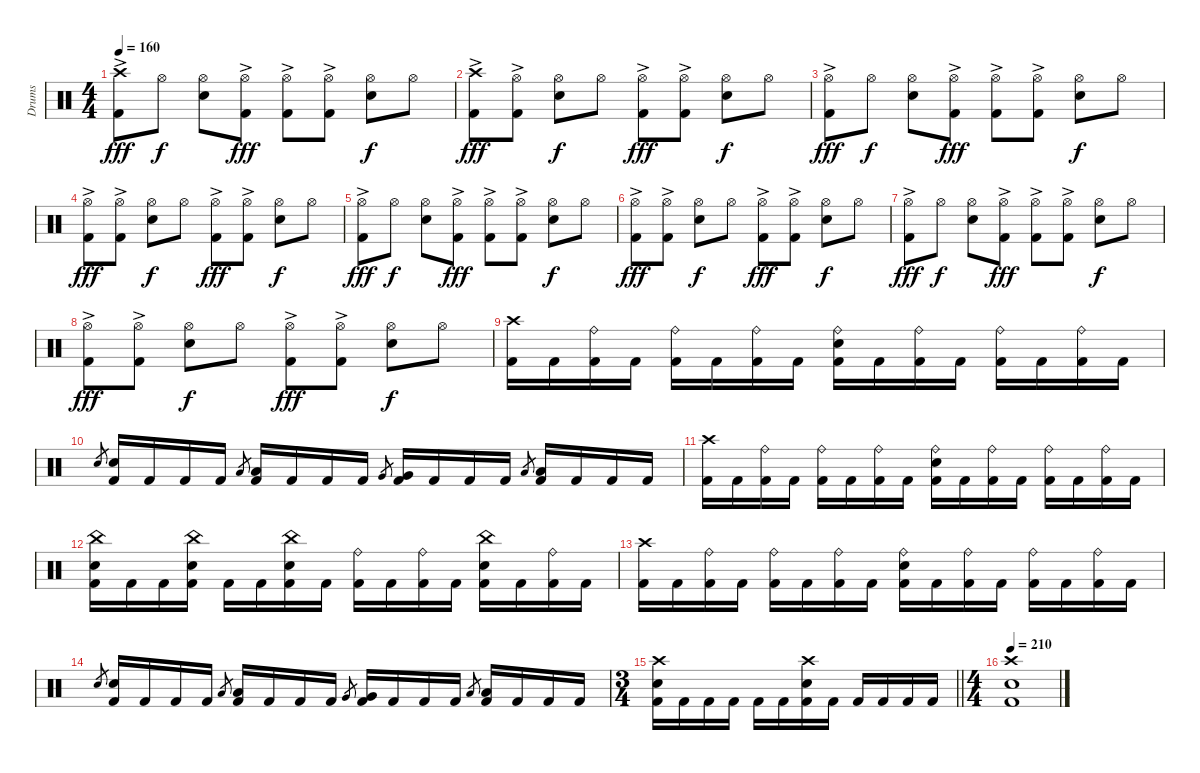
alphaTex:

\track ("Drums" "Drums") {instrument percussion}
\staff {score}
\articulation defaults
\ts (4 4)
\tempo 160
\clef neutral
\ks c
("Crash high (hit)" "Kick (hit) 2"{ac}).8{dy fff} "Hi-Hat (open)".8{dy f} ("Hi-Hat (open)" "Snare (hit) 2").8 ("Hi-Hat (open)" "Kick (hit) 2"{ac}).8{dy fff} ("Hi-Hat (open)" "Kick (hit) 2"{ac}).8 ("Hi-Hat (open)" "Kick (hit) 2"{ac}).8 ("Hi-Hat (open)" "Snare (hit) 2").8{dy f} "Hi-Hat (open)".8 |
("Crash high (hit)" "Kick (hit) 2"{ac}).8{dy fff} ("Hi-Hat (open)" "Kick (hit) 2"{ac}).8 ("Hi-Hat (open)" "Snare (hit) 2").8{dy f} "Hi-Hat (open)".8 ("Hi-Hat (open)" "Kick (hit) 2"{ac}).8{dy fff} ("Hi-Hat (open)" "Kick (hit) 2"{ac}).8 ("Hi-Hat (open)" "Snare (hit) 2").8{dy f} "Hi-Hat (open)".8 |
("Hi-Hat (open)" "Kick (hit) 2"{ac}).8{dy fff} "Hi-Hat (open)".8{dy f} ("Hi-Hat (open)" "Snare (hit) 2").8 ("Hi-Hat (open)" "Kick (hit) 2"{ac}).8{dy fff} ("Hi-Hat (open)" "Kick (hit) 2"{ac}).8 ("Hi-Hat (open)" "Kick (hit) 2"{ac}).8 ("Hi-Hat (open)" "Snare (hit) 2").8{dy f} "Hi-Hat (open)".8 |
("Hi-Hat (open)" "Kick (hit) 2"{ac}).8{dy fff} ("Hi-Hat (open)" "Kick (hit) 2"{ac}).8 ("Hi-Hat (open)" "Snare (hit) 2").8{dy f} "Hi-Hat (open)".8 ("Hi-Hat (open)" "Kick (hit) 2"{ac}).8{dy fff} ("Hi-Hat (open)" "Kick (hit) 2"{ac}).8 ("Hi-Hat (open)" "Snare (hit) 2").8{dy f} "Hi-Hat (open)".8 |
("Hi-Hat (open)" "Kick (hit) 2"{ac}).8{dy fff} "Hi-Hat (open)".8{dy f} ("Hi-Hat (open)" "Snare (hit) 2").8 ("Hi-Hat (open)" "Kick (hit) 2"{ac}).8{dy fff} ("Hi-Hat (open)" "Kick (hit) 2"{ac}).8 ("Hi-Hat (open)" "Kick (hit) 2"{ac}).8 ("Hi-Hat (open)" "Snare (hit) 2").8{dy f} "Hi-Hat (open)".8 |
("Hi-Hat (open)" "Kick (hit) 2"{ac}).8{dy fff} ("Hi-Hat (open)" "Kick (hit) 2"{ac}).8 ("Hi-Hat (open)" "Snare (hit) 2").8{dy f} "Hi-Hat (open)".8 ("Hi-Hat (open)" "Kick (hit) 2"{ac}).8{dy fff} ("Hi-Hat (open)" "Kick (hit) 2"{ac}).8 ("Hi-Hat (open)" "Snare (hit) 2").8{dy f} "Hi-Hat (open)".8 |
("Hi-Hat (open)" "Kick (hit) 2"{ac}).8{dy fff} "Hi-Hat (open)".8{dy f} ("Hi-Hat (open)" "Snare (hit) 2").8 ("Hi-Hat (open)" "Kick (hit) 2"{ac}).8{dy fff} ("Hi-Hat (open)" "Kick (hit) 2"{ac}).8 ("Hi-Hat (open)" "Kick (hit) 2"{ac}).8 ("Hi-Hat (open)" "Snare (hit) 2").8{dy f} "Hi-Hat (open)".8 |
("Hi-Hat (open)" "Kick (hit) 2"{ac}).8{dy fff} ("Hi-Hat (open)" "Kick (hit) 2"{ac}).8 ("Hi-Hat (open)" "Snare (hit) 2").8{dy f} "Hi-Hat (open)".8 ("Hi-Hat (open)" "Kick (hit) 2"{ac}).8{dy fff} ("Hi-Hat (open)" "Kick (hit) 2"{ac}).8 ("Hi-Hat (open)" "Snare (hit) 2").8{dy f} "Hi-Hat (open)".8 |
("Crash high (hit)" "Kick (hit) 2").16 "Kick (hit) 2".16 ("Ride (bell)" "Kick (hit) 2").16 "Kick (hit) 2".16 ("Ride (bell)" "Kick (hit) 2").16 "Kick (hit) 2".16 ("Ride (bell)" "Kick (hit) 2").16 "Kick (hit) 2".16 ("Ride (bell)" "Snare (hit) 2" "Kick (hit) 2").16 "Kick (hit) 2".16 ("Ride (bell)" "Kick (hit) 2").16 "Kick (hit) 2".16 ("Ride (bell)" "Kick (hit) 2").16 "Kick (hit) 2".16 ("Ride (bell)" "Kick (hit) 2").16 "Kick (hit) 2".16 |
"Snare (hit) 2".8{gr} ("Snare (hit) 2" "Kick (hit) 2").16 "Kick (hit) 2".16 "Kick (hit) 2".16 "Kick (hit) 2".16 "Low Tom (hit)".8{gr} ("Low Tom (hit)" "Kick (hit) 2").16 "Kick (hit) 2".16 "Kick (hit) 2".16 "Kick (hit) 2".16 "Very Low Tom (hit)".8{gr} ("Very Low Tom (hit)" "Kick (hit) 2").16 "Kick (hit) 2".16 "Kick (hit) 2".16 "Kick (hit) 2".16 "Low Floor Tom (hit)".8{gr} ("Low Floor Tom (hit)" "Kick (hit) 2").16 "Kick (hit) 2".16 "Kick (hit) 2".16 "Kick (hit) 2".16 |
("Crash high (hit)" "Kick (hit) 2").16 "Kick (hit) 2".16 ("Ride (bell)" "Kick (hit) 2").16 "Kick (hit) 2".16 ("Ride (bell)" "Kick (hit) 2").16 "Kick (hit) 2".16 ("Ride (bell)" "Kick (hit) 2").16 "Kick (hit) 2".16 ("Ride (bell)" "Snare (hit) 2" "Kick (hit) 2").16 "Kick (hit) 2".16 ("Ride (bell)" "Kick (hit) 2").16 "Kick (hit) 2".16 ("Ride (bell)" "Kick (hit) 2").16 "Kick (hit) 2".16 ("Ride (bell)" "Kick (hit) 2").16 "Kick (hit) 2".16 |
("China (hit)" "Snare (hit) 2" "Kick (hit) 2").16 "Kick (hit) 2".16 "Kick (hit) 2".16 ("China (hit)" "Snare (hit) 2" "Kick (hit) 2").16 "Kick (hit) 2".16 "Kick (hit) 2".16 ("China (hit)" "Snare (hit) 2" "Kick (hit) 2").16 "Kick (hit) 2".16 ("Ride (bell)" "Kick (hit) 2").16 "Kick (hit) 2".16 ("Ride (bell)" "Kick (hit) 2").16 "Kick (hit) 2".16 ("China (hit)" "Snare (hit) 2" "Kick (hit) 2").16 "Kick (hit) 2".16 ("Ride (bell)" "Kick (hit) 2").16 "Kick (hit) 2".16 |
("Crash high (hit)" "Kick (hit) 2").16 "Kick (hit) 2".16 ("Ride (bell)" "Kick (hit) 2").16 "Kick (hit) 2".16 ("Ride (bell)" "Kick (hit) 2").16 "Kick (hit) 2".16 ("Ride (bell)" "Kick (hit) 2").16 "Kick (hit) 2".16 ("Ride (bell)" "Snare (hit) 2" "Kick (hit) 2").16 "Kick (hit) 2".16 ("Ride (bell)" "Kick (hit) 2").16 "Kick (hit) 2".16 ("Ride (bell)" "Kick (hit) 2").16 "Kick (hit) 2".16 ("Ride (bell)" "Kick (hit) 2").16 "Kick (hit) 2".16 |
"Snare (hit) 2".8{gr} ("Snare (hit) 2" "Kick (hit) 2").16 "Kick (hit) 2".16 "Kick (hit) 2".16 "Kick (hit) 2".16 "Low Tom (hit)".8{gr} ("Low Tom (hit)" "Kick (hit) 2").16 "Kick (hit) 2".16 "Kick (hit) 2".16 "Kick (hit) 2".16 "Very Low Tom (hit)".8{gr} ("Very Low Tom (hit)" "Kick (hit) 2").16 "Kick (hit) 2".16 "Kick (hit) 2".16 "Kick (hit) 2".16 "Low Floor Tom (hit)".8{gr} ("Low Floor Tom (hit)" "Kick (hit) 2").16 "Kick (hit) 2".16 "Kick (hit) 2".16 "Kick (hit) 2".16 |
\ts (3 4)
\barLineRight lightlight
("Crash high (hit)" "Snare (hit) 2" "Kick (hit) 2").16 "Kick (hit) 2".16 "Kick (hit) 2".16 "Kick (hit) 2".16 "Kick (hit) 2".16 "Kick (hit) 2".16 ("Crash high (hit)" "Snare (hit) 2" "Kick (hit) 2").16 "Kick (hit) 2".16 "Kick (hit) 2".16 "Kick (hit) 2".16 "Kick (hit) 2".16 "Kick (hit) 2".16 |
\ts (4 4)
\tempo 210
("Crash high (hit)" "Snare (hit) 2" "Kick (hit) 2").1
